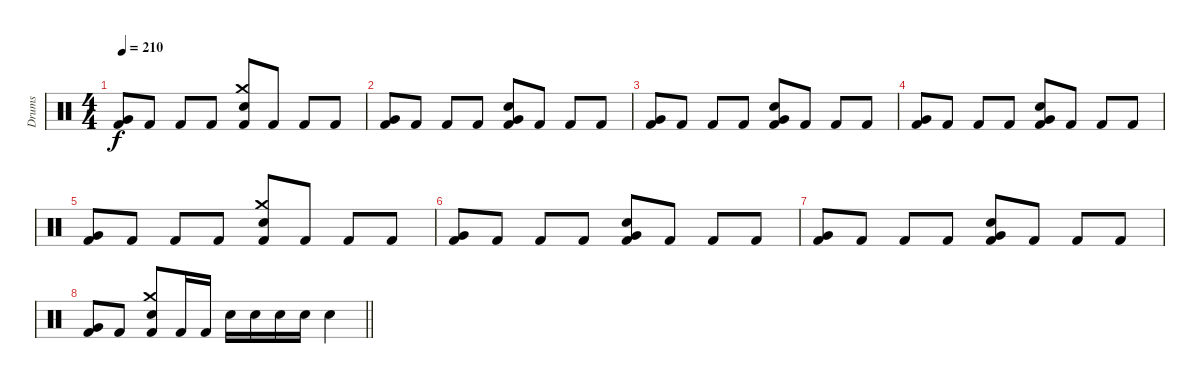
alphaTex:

\track ("Drums" "Drums") {instrument percussion}
\staff {score}
\articulation defaults
\ts (4 4)
\tempo 210
\clef neutral
\ks c
("Very Low Tom (hit)" "Kick (hit) 2").8{dy f} "Kick (hit) 2".8 "Kick (hit) 2".8 "Kick (hit) 2".8 ("Crash medium (hit)" "Snare (hit) 2" "Kick (hit) 2").8 "Kick (hit) 2".8 "Kick (hit) 2".8 "Kick (hit) 2".8 |
("Very Low Tom (hit)" "Kick (hit) 2").8 "Kick (hit) 2".8 "Kick (hit) 2".8 "Kick (hit) 2".8 ("Very Low Tom (hit)" "Snare (hit) 2" "Kick (hit) 2").8 "Kick (hit) 2".8 "Kick (hit) 2".8 "Kick (hit) 2".8 |
("Very Low Tom (hit)" "Kick (hit) 2").8 "Kick (hit) 2".8 "Kick (hit) 2".8 "Kick (hit) 2".8 ("Very Low Tom (hit)" "Snare (hit) 2" "Kick (hit) 2").8 "Kick (hit) 2".8 "Kick (hit) 2".8 "Kick (hit) 2".8 |
("Very Low Tom (hit)" "Kick (hit) 2").8 "Kick (hit) 2".8 "Kick (hit) 2".8 "Kick (hit) 2".8 ("Very Low Tom (hit)" "Snare (hit) 2" "Kick (hit) 2").8 "Kick (hit) 2".8 "Kick (hit) 2".8 "Kick (hit) 2".8 |
("Very Low Tom (hit)" "Kick (hit) 2").8 "Kick (hit) 2".8 "Kick (hit) 2".8 "Kick (hit) 2".8 ("Crash medium (hit)" "Snare (hit) 2" "Kick (hit) 2").8 "Kick (hit) 2".8 "Kick (hit) 2".8 "Kick (hit) 2".8 |
("Very Low Tom (hit)" "Kick (hit) 2").8 "Kick (hit) 2".8 "Kick (hit) 2".8 "Kick (hit) 2".8 ("Very Low Tom (hit)" "Snare (hit) 2" "Kick (hit) 2").8 "Kick (hit) 2".8 "Kick (hit) 2".8 "Kick (hit) 2".8 |
("Very Low Tom (hit)" "Kick (hit) 2").8 "Kick (hit) 2".8 "Kick (hit) 2".8 "Kick (hit) 2".8 ("Very Low Tom (hit)" "Snare (hit) 2" "Kick (hit) 2").8 "Kick (hit) 2".8 "Kick (hit) 2".8 "Kick (hit) 2".8 |
\barLineRight lightlight
("Very Low Tom (hit)" "Kick (hit) 2").8 "Kick (hit) 2".8 ("Crash medium (hit)" "Snare (hit) 2" "Kick (hit) 2").8 "Kick (hit) 2".16 "Kick (hit) 2".16 "Snare (hit) 2".16 "Snare (hit) 2".16 "Snare (hit) 2".16 "Snare (hit) 2".16 "Snare (hit) 2".4
